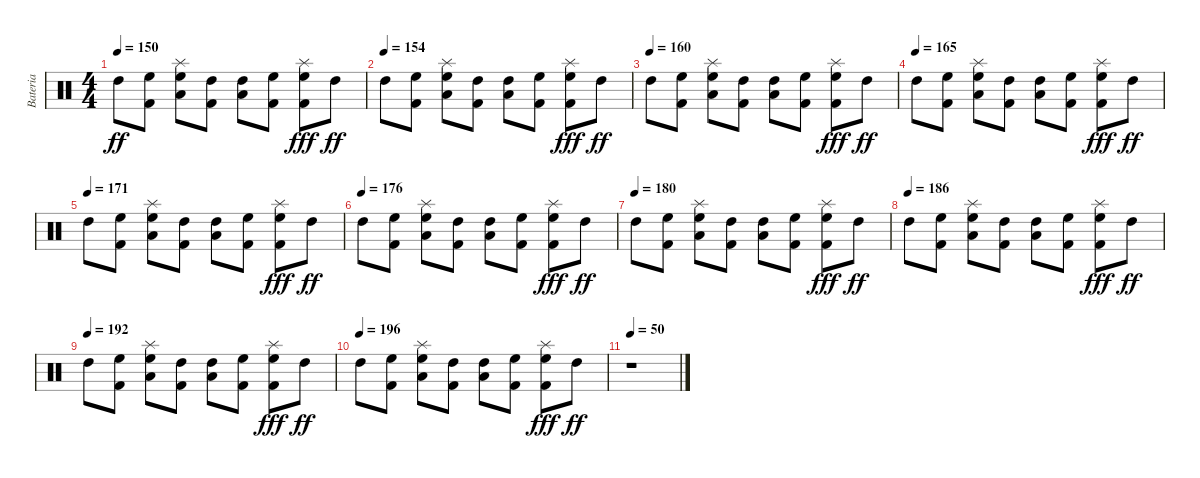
\track ("Bateria" "Bateria") {instrument percussion}
\staff {score}
\articulation defaults
\ts (4 4)
\tempo 150
\clef neutral
\ks c "High Tom (hit)".8{dy ff}
("Kick (hit) 2" "High Floor Tom (hit)").8 ("High Floor Tom (hit)" "Splash (hit)" "Low Floor Tom (hit)").8 ("High Tom (hit)" "Kick (hit) 2").8 ("High Tom (hit)" "Low Floor Tom (hit)").8 ("Kick (hit) 2" "High Floor Tom (hit)").8 ("High Floor Tom (hit)" "Splash (hit)" "Kick (hit) 2").8{dy fff} "High Tom (hit)".8{dy ff} |
\tempo (154)
"High Tom (hit)".8 ("Kick (hit) 2" "High Floor Tom (hit)").8 ("High Floor Tom (hit)" "Splash (hit)" "Low Floor Tom (hit)").8 ("High Tom (hit)" "Kick (hit) 2").8 ("High Tom (hit)" "Low Floor Tom (hit)").8 ("Kick (hit) 2" "High Floor Tom (hit)").8 ("High Floor Tom (hit)" "Splash (hit)" "Kick (hit) 2").8{dy fff} "High Tom (hit)".8{dy ff} |
\tempo (160)
"High Tom (hit)".8 ("Kick (hit) 2" "High Floor Tom (hit)").8 ("High Floor Tom (hit)" "Splash (hit)" "Low Floor Tom (hit)").8 ("High Tom (hit)" "Kick (hit) 2").8 ("High Tom (hit)" "Low Floor Tom (hit)").8 ("Kick (hit) 2" "High Floor Tom (hit)").8 ("High Floor Tom (hit)" "Splash (hit)" "Kick (hit) 2").8{dy fff} "High Tom (hit)".8{dy ff} |
\tempo (165)
"High Tom (hit)".8 ("Kick (hit) 2" "High Floor Tom (hit)").8 ("High Floor Tom (hit)" "Splash (hit)" "Low Floor Tom (hit)").8 ("High Tom (hit)" "Kick (hit) 2").8 ("High Tom (hit)" "Low Floor Tom (hit)").8 ("Kick (hit) 2" "High Floor Tom (hit)").8 ("High Floor Tom (hit)" "Splash (hit)" "Kick (hit) 2").8{dy fff} "High Tom (hit)".8{dy ff} |
\tempo (171)
"High Tom (hit)".8 ("Kick (hit) 2" "High Floor Tom (hit)").8 ("High Floor Tom (hit)" "Splash (hit)" "Low Floor Tom (hit)").8 ("High Tom (hit)" "Kick (hit) 2").8 ("High Tom (hit)" "Low Floor Tom (hit)").8 ("Kick (hit) 2" "High Floor Tom (hit)").8 ("High Floor Tom (hit)" "Splash (hit)" "Kick (hit) 2").8{dy fff} "High Tom (hit)".8{dy ff} |
\tempo (176)
"High Tom (hit)".8 ("Kick (hit) 2" "High Floor Tom (hit)").8 ("High Floor Tom (hit)" "Splash (hit)" "Low Floor Tom (hit)").8 ("High Tom (hit)" "Kick (hit) 2").8 ("High Tom (hit)" "Low Floor Tom (hit)").8 ("Kick (hit) 2" "High Floor Tom (hit)").8 ("High Floor Tom (hit)" "Splash (hit)" "Kick (hit) 2").8{dy fff} "High Tom (hit)".8{dy ff} |
\tempo (180)
"High Tom (hit)".8 ("Kick (hit) 2" "High Floor Tom (hit)").8 ("High Floor Tom (hit)" "Splash (hit)" "Low Floor Tom (hit)").8 ("High Tom (hit)" "Kick (hit) 2").8 ("High Tom (hit)" "Low Floor Tom (hit)").8 ("Kick (hit) 2" "High Floor Tom (hit)").8 ("High Floor Tom (hit)" "Splash (hit)" "Kick (hit) 2").8{dy fff} "High Tom (hit)".8{dy ff} |
\tempo (186)
"High Tom (hit)".8 ("Kick (hit) 2" "High Floor Tom (hit)").8 ("High Floor Tom (hit)" "Splash (hit)" "Low Floor Tom (hit)").8 ("High Tom (hit)" "Kick (hit) 2").8 ("High Tom (hit)" "Low Floor Tom (hit)").8 ("Kick (hit) 2" "High Floor Tom (hit)").8 ("High Floor Tom (hit)" "Splash (hit)" "Kick (hit) 2").8{dy fff} "High Tom (hit)".8{dy ff} |
\tempo (192)
"High Tom (hit)".8 ("Kick (hit) 2" "High Floor Tom (hit)").8 ("High Floor Tom (hit)" "Splash (hit)" "Low Floor Tom (hit)").8 ("High Tom (hit)" "Kick (hit) 2").8 ("High Tom (hit)" "Low Floor Tom (hit)").8 ("Kick (hit) 2" "High Floor Tom (hit)").8 ("High Floor Tom (hit)" "Splash (hit)" "Kick (hit) 2").8{dy fff} "High Tom (hit)".8{dy ff} |
\tempo (196)
"High Tom (hit)".8 ("Kick (hit) 2" "High Floor Tom (hit)").8 ("High Floor Tom (hit)" "Splash (hit)" "Low Floor Tom (hit)").8 ("High Tom (hit)" "Kick (hit) 2").8 ("High Tom (hit)" "Low Floor Tom (hit)").8 ("Kick (hit) 2" "High Floor Tom (hit)").8 ("High Floor Tom (hit)" "Splash (hit)" "Kick (hit) 2").8{dy fff} "High Tom (hit)".8{dy ff} |
\tempo 50
r.1
